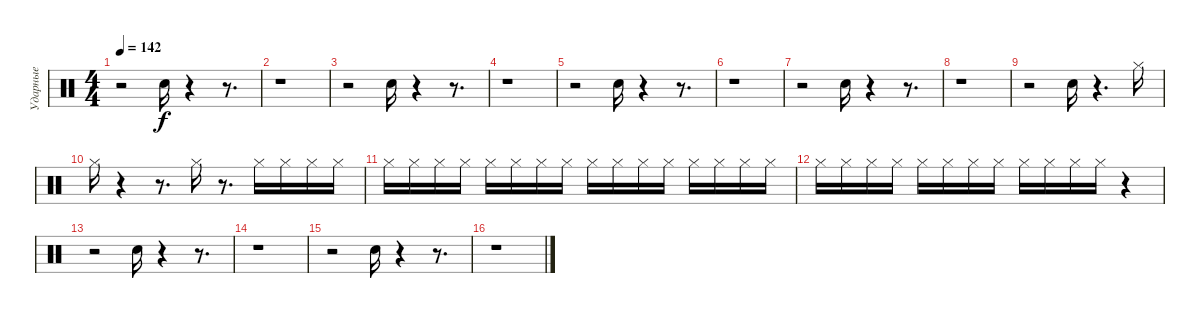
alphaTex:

\track ("Ударные" "Ударные") {instrument percussion}
\staff {score}
\articulation defaults
\ts (4 4)
\tempo 142
\clef neutral
\ks c
r.2{dy f} "Snare (hit) 2".16 r.4 r.8{d} |
r.1 |
r.2 "Snare (hit) 2".16 r.4 r.8{d} |
r.1 |
r.2 "Snare (hit) 2".16 r.4 r.8{d} |
r.1 |
r.2 "Snare (hit) 2".16 r.4 r.8{d} |
r.1 |
r.2 "Snare (hit) 2".16 r.4{d} "Hi-Hat (closed)".16 |
"Hi-Hat (closed)".16 r.4 r.8{d} "Hi-Hat (closed)".16 r.8{d} "Hi-Hat (closed)".16 "Hi-Hat (closed)".16 "Hi-Hat (closed)".16 "Hi-Hat (closed)".16 |
"Hi-Hat (closed)".16 "Hi-Hat (closed)".16 "Hi-Hat (closed)".16 "Hi-Hat (closed)".16 "Hi-Hat (closed)".16 "Hi-Hat (closed)".16 "Hi-Hat (closed)".16 "Hi-Hat (closed)".16 "Hi-Hat (closed)".16 "Hi-Hat (closed)".16 "Hi-Hat (closed)".16 "Hi-Hat (closed)".16 "Hi-Hat (closed)".16 "Hi-Hat (closed)".16 "Hi-Hat (closed)".16 "Hi-Hat (closed)".16 |
"Hi-Hat (closed)".16 "Hi-Hat (closed)".16 "Hi-Hat (closed)".16 "Hi-Hat (closed)".16 "Hi-Hat (closed)".16 "Hi-Hat (closed)".16 "Hi-Hat (closed)".16 "Hi-Hat (closed)".16 "Hi-Hat (closed)".16 "Hi-Hat (closed)".16 "Hi-Hat (closed)".16 "Hi-Hat (closed)".16 r.4 |
r.2 "Snare (hit) 2".16 r.4 r.8{d} |
r.1 |
r.2 "Snare (hit) 2".16 r.4 r.8{d} |
r.1
